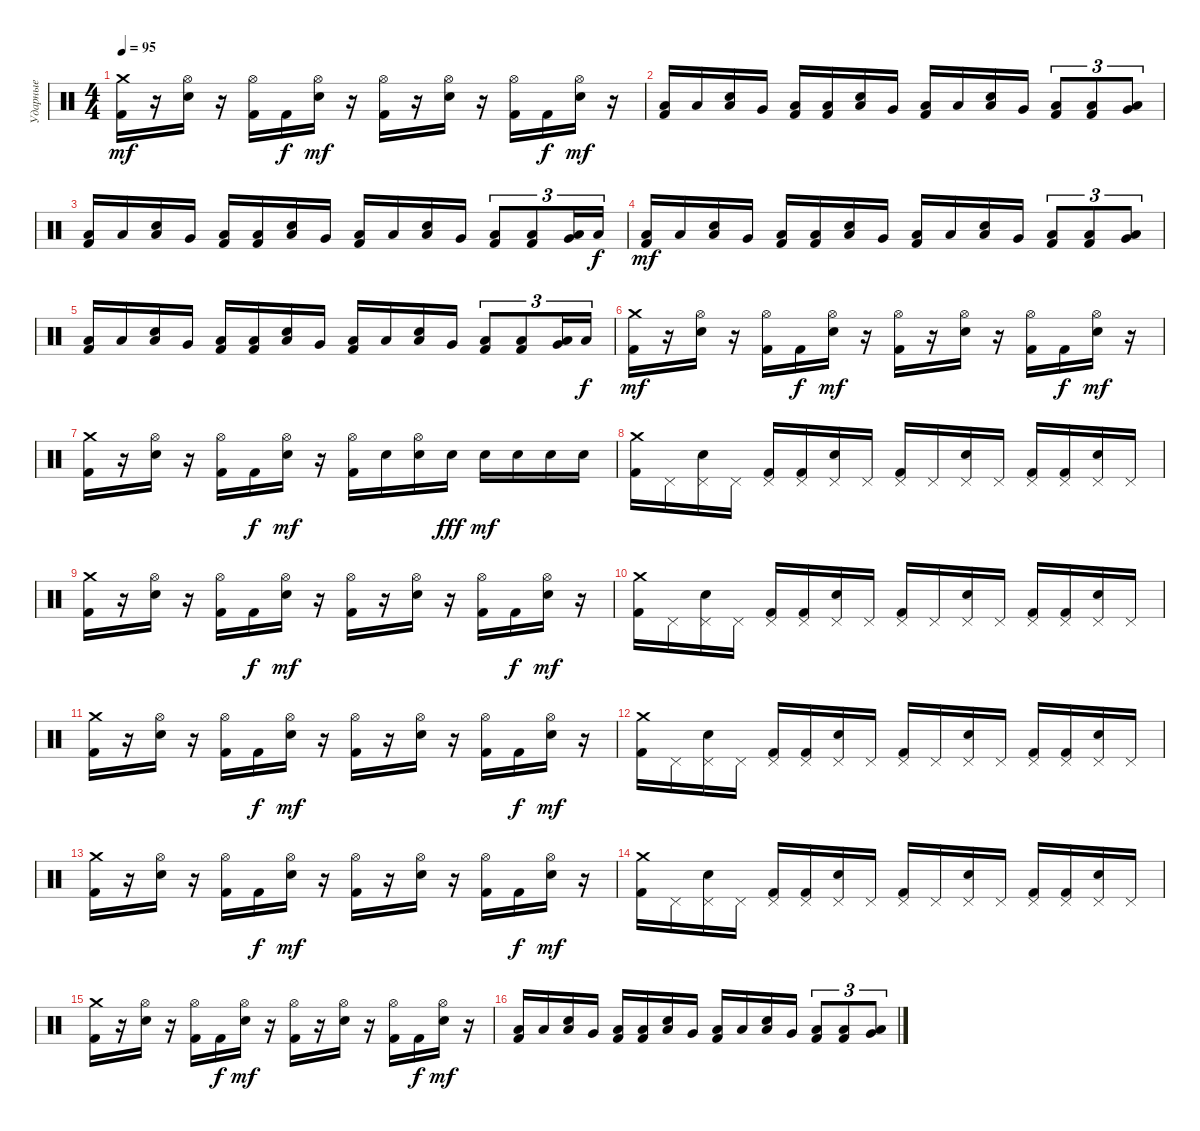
\track ("Ударные" "Ударные") {instrument percussion}
\staff {score}
\articulation defaults
\ts (4 4)
\tempo 95
\clef neutral
\ks c
("Crash medium (hit)" "Kick (hit) 2").16{dy mf} r.16 ("Hi-Hat (open)" "Electric Snare (hit)").16 r.16 ("Hi-Hat (open)" "Kick (hit) 2").16 "Kick (hit) 2".16{dy f} ("Hi-Hat (open)" "Electric Snare (hit)").16{dy mf} r.16 ("Hi-Hat (open)" "Kick (hit) 2").16 r.16 ("Hi-Hat (open)" "Electric Snare (hit)").16 r.16 ("Hi-Hat (open)" "Kick (hit) 2").16 "Kick (hit) 2".16{dy f} ("Hi-Hat (open)" "Electric Snare (hit)").16{dy mf} r.16 |
("Low Floor Tom (hit)" "Kick (hit) 2").16 "Low Floor Tom (hit)".16 ("Low Floor Tom (hit)" "Electric Snare (hit)").16 "Very Low Tom (hit)".16 ("Low Floor Tom (hit)" "Kick (hit) 2").16 ("Low Floor Tom (hit)" "Kick (hit) 2").16 ("Low Floor Tom (hit)" "Electric Snare (hit)").16 "Very Low Tom (hit)".16 ("Low Floor Tom (hit)" "Kick (hit) 2").16 "Low Floor Tom (hit)".16 ("Low Floor Tom (hit)" "Electric Snare (hit)").16 "Very Low Tom (hit)".16 ("Low Floor Tom (hit)" "Kick (hit) 2").8{tu (3 2)} ("Low Floor Tom (hit)" "Kick (hit) 2").8{tu (3 2)} ("Low Floor Tom (hit)" "Very Low Tom (hit)").8{tu (3 2)} |
("Low Floor Tom (hit)" "Kick (hit) 2").16 "Low Floor Tom (hit)".16 ("Low Floor Tom (hit)" "Electric Snare (hit)").16 "Very Low Tom (hit)".16 ("Low Floor Tom (hit)" "Kick (hit) 2").16 ("Low Floor Tom (hit)" "Kick (hit) 2").16 ("Low Floor Tom (hit)" "Electric Snare (hit)").16 "Very Low Tom (hit)".16 ("Low Floor Tom (hit)" "Kick (hit) 2").16 "Low Floor Tom (hit)".16 ("Low Floor Tom (hit)" "Electric Snare (hit)").16 "Very Low Tom (hit)".16 ("Low Floor Tom (hit)" "Kick (hit) 2").8{tu (3 2)} ("Low Floor Tom (hit)" "Kick (hit) 2").8{tu (3 2)} ("Low Floor Tom (hit)" "Very Low Tom (hit)").16{tu (3 2)} "Low Floor Tom (hit)".16{tu (3 2) dy f} |
("Low Floor Tom (hit)" "Kick (hit) 2").16{dy mf} "Low Floor Tom (hit)".16 ("Low Floor Tom (hit)" "Electric Snare (hit)").16 "Very Low Tom (hit)".16 ("Low Floor Tom (hit)" "Kick (hit) 2").16 ("Low Floor Tom (hit)" "Kick (hit) 2").16 ("Low Floor Tom (hit)" "Electric Snare (hit)").16 "Very Low Tom (hit)".16 ("Low Floor Tom (hit)" "Kick (hit) 2").16 "Low Floor Tom (hit)".16 ("Low Floor Tom (hit)" "Electric Snare (hit)").16 "Very Low Tom (hit)".16 ("Low Floor Tom (hit)" "Kick (hit) 2").8{tu (3 2)} ("Low Floor Tom (hit)" "Kick (hit) 2").8{tu (3 2)} ("Low Floor Tom (hit)" "Very Low Tom (hit)").8{tu (3 2)} |
("Low Floor Tom (hit)" "Kick (hit) 2").16 "Low Floor Tom (hit)".16 ("Low Floor Tom (hit)" "Electric Snare (hit)").16 "Very Low Tom (hit)".16 ("Low Floor Tom (hit)" "Kick (hit) 2").16 ("Low Floor Tom (hit)" "Kick (hit) 2").16 ("Low Floor Tom (hit)" "Electric Snare (hit)").16 "Very Low Tom (hit)".16 ("Low Floor Tom (hit)" "Kick (hit) 2").16 "Low Floor Tom (hit)".16 ("Low Floor Tom (hit)" "Electric Snare (hit)").16 "Very Low Tom (hit)".16 ("Low Floor Tom (hit)" "Kick (hit) 2").8{tu (3 2)} ("Low Floor Tom (hit)" "Kick (hit) 2").8{tu (3 2)} ("Low Floor Tom (hit)" "Very Low Tom (hit)").16{tu (3 2)} "Low Floor Tom (hit)".16{tu (3 2) dy f} |
("Crash medium (hit)" "Kick (hit) 2").16{dy mf} r.16 ("Hi-Hat (open)" "Electric Snare (hit)").16 r.16 ("Hi-Hat (open)" "Kick (hit) 2").16 "Kick (hit) 2".16{dy f} ("Hi-Hat (open)" "Electric Snare (hit)").16{dy mf} r.16 ("Hi-Hat (open)" "Kick (hit) 2").16 r.16 ("Hi-Hat (open)" "Electric Snare (hit)").16 r.16 ("Hi-Hat (open)" "Kick (hit) 2").16 "Kick (hit) 2".16{dy f} ("Hi-Hat (open)" "Electric Snare (hit)").16{dy mf} r.16 |
("Crash medium (hit)" "Kick (hit) 2").16 r.16 ("Hi-Hat (open)" "Electric Snare (hit)").16 r.16 ("Hi-Hat (open)" "Kick (hit) 2").16 "Kick (hit) 2".16{dy f} ("Hi-Hat (open)" "Electric Snare (hit)").16{dy mf} r.16 ("Hi-Hat (open)" "Kick (hit) 2").16 "Electric Snare (hit)".16 ("Hi-Hat (open)" "Electric Snare (hit)").16 "Electric Snare (hit)".16{dy fff} "Electric Snare (hit)".16{dy mf} "Electric Snare (hit)".16 "Electric Snare (hit)".16 "Electric Snare (hit)".16 |
("Crash medium (hit)" "Kick (hit) 2").16 "Pedal Hi-Hat (hit)".16 ("Pedal Hi-Hat (hit)" "Electric Snare (hit)").16 "Pedal Hi-Hat (hit)".16 ("Pedal Hi-Hat (hit)" "Kick (hit) 2").16 ("Pedal Hi-Hat (hit)" "Kick (hit) 2").16 ("Pedal Hi-Hat (hit)" "Electric Snare (hit)").16 "Pedal Hi-Hat (hit)".16 ("Pedal Hi-Hat (hit)" "Kick (hit) 2").16 "Pedal Hi-Hat (hit)".16 ("Pedal Hi-Hat (hit)" "Electric Snare (hit)").16 "Pedal Hi-Hat (hit)".16 ("Pedal Hi-Hat (hit)" "Kick (hit) 2").16 ("Pedal Hi-Hat (hit)" "Kick (hit) 2").16 ("Pedal Hi-Hat (hit)" "Electric Snare (hit)").16 "Pedal Hi-Hat (hit)".16 |
("Crash medium (hit)" "Kick (hit) 2").16 r.16 ("Hi-Hat (open)" "Electric Snare (hit)").16 r.16 ("Hi-Hat (open)" "Kick (hit) 2").16 "Kick (hit) 2".16{dy f} ("Hi-Hat (open)" "Electric Snare (hit)").16{dy mf} r.16 ("Hi-Hat (open)" "Kick (hit) 2").16 r.16 ("Hi-Hat (open)" "Electric Snare (hit)").16 r.16 ("Hi-Hat (open)" "Kick (hit) 2").16 "Kick (hit) 2".16{dy f} ("Hi-Hat (open)" "Electric Snare (hit)").16{dy mf} r.16 |
("Crash medium (hit)" "Kick (hit) 2").16 "Pedal Hi-Hat (hit)".16 ("Pedal Hi-Hat (hit)" "Electric Snare (hit)").16 "Pedal Hi-Hat (hit)".16 ("Pedal Hi-Hat (hit)" "Kick (hit) 2").16 ("Pedal Hi-Hat (hit)" "Kick (hit) 2").16 ("Pedal Hi-Hat (hit)" "Electric Snare (hit)").16 "Pedal Hi-Hat (hit)".16 ("Pedal Hi-Hat (hit)" "Kick (hit) 2").16 "Pedal Hi-Hat (hit)".16 ("Pedal Hi-Hat (hit)" "Electric Snare (hit)").16 "Pedal Hi-Hat (hit)".16 ("Pedal Hi-Hat (hit)" "Kick (hit) 2").16 ("Pedal Hi-Hat (hit)" "Kick (hit) 2").16 ("Pedal Hi-Hat (hit)" "Electric Snare (hit)").16 "Pedal Hi-Hat (hit)".16 |
("Crash medium (hit)" "Kick (hit) 2").16 r.16 ("Hi-Hat (open)" "Electric Snare (hit)").16 r.16 ("Hi-Hat (open)" "Kick (hit) 2").16 "Kick (hit) 2".16{dy f} ("Hi-Hat (open)" "Electric Snare (hit)").16{dy mf} r.16 ("Hi-Hat (open)" "Kick (hit) 2").16 r.16 ("Hi-Hat (open)" "Electric Snare (hit)").16 r.16 ("Hi-Hat (open)" "Kick (hit) 2").16 "Kick (hit) 2".16{dy f} ("Hi-Hat (open)" "Electric Snare (hit)").16{dy mf} r.16 |
("Crash medium (hit)" "Kick (hit) 2").16 "Pedal Hi-Hat (hit)".16 ("Pedal Hi-Hat (hit)" "Electric Snare (hit)").16 "Pedal Hi-Hat (hit)".16 ("Pedal Hi-Hat (hit)" "Kick (hit) 2").16 ("Pedal Hi-Hat (hit)" "Kick (hit) 2").16 ("Pedal Hi-Hat (hit)" "Electric Snare (hit)").16 "Pedal Hi-Hat (hit)".16 ("Pedal Hi-Hat (hit)" "Kick (hit) 2").16 "Pedal Hi-Hat (hit)".16 ("Pedal Hi-Hat (hit)" "Electric Snare (hit)").16 "Pedal Hi-Hat (hit)".16 ("Pedal Hi-Hat (hit)" "Kick (hit) 2").16 ("Pedal Hi-Hat (hit)" "Kick (hit) 2").16 ("Pedal Hi-Hat (hit)" "Electric Snare (hit)").16 "Pedal Hi-Hat (hit)".16 |
("Crash medium (hit)" "Kick (hit) 2").16 r.16 ("Hi-Hat (open)" "Electric Snare (hit)").16 r.16 ("Hi-Hat (open)" "Kick (hit) 2").16 "Kick (hit) 2".16{dy f} ("Hi-Hat (open)" "Electric Snare (hit)").16{dy mf} r.16 ("Hi-Hat (open)" "Kick (hit) 2").16 r.16 ("Hi-Hat (open)" "Electric Snare (hit)").16 r.16 ("Hi-Hat (open)" "Kick (hit) 2").16 "Kick (hit) 2".16{dy f} ("Hi-Hat (open)" "Electric Snare (hit)").16{dy mf} r.16 |
("Crash medium (hit)" "Kick (hit) 2").16 "Pedal Hi-Hat (hit)".16 ("Pedal Hi-Hat (hit)" "Electric Snare (hit)").16 "Pedal Hi-Hat (hit)".16 ("Pedal Hi-Hat (hit)" "Kick (hit) 2").16 ("Pedal Hi-Hat (hit)" "Kick (hit) 2").16 ("Pedal Hi-Hat (hit)" "Electric Snare (hit)").16 "Pedal Hi-Hat (hit)".16 ("Pedal Hi-Hat (hit)" "Kick (hit) 2").16 "Pedal Hi-Hat (hit)".16 ("Pedal Hi-Hat (hit)" "Electric Snare (hit)").16 "Pedal Hi-Hat (hit)".16 ("Pedal Hi-Hat (hit)" "Kick (hit) 2").16 ("Pedal Hi-Hat (hit)" "Kick (hit) 2").16 ("Pedal Hi-Hat (hit)" "Electric Snare (hit)").16 "Pedal Hi-Hat (hit)".16 |
("Crash medium (hit)" "Kick (hit) 2").16 r.16 ("Hi-Hat (open)" "Electric Snare (hit)").16 r.16 ("Hi-Hat (open)" "Kick (hit) 2").16 "Kick (hit) 2".16{dy f} ("Hi-Hat (open)" "Electric Snare (hit)").16{dy mf} r.16 ("Hi-Hat (open)" "Kick (hit) 2").16 r.16 ("Hi-Hat (open)" "Electric Snare (hit)").16 r.16 ("Hi-Hat (open)" "Kick (hit) 2").16 "Kick (hit) 2".16{dy f} ("Hi-Hat (open)" "Electric Snare (hit)").16{dy mf} r.16 |
("Low Floor Tom (hit)" "Kick (hit) 2").16 "Low Floor Tom (hit)".16 ("Low Floor Tom (hit)" "Electric Snare (hit)").16 "Very Low Tom (hit)".16 ("Low Floor Tom (hit)" "Kick (hit) 2").16 ("Low Floor Tom (hit)" "Kick (hit) 2").16 ("Low Floor Tom (hit)" "Electric Snare (hit)").16 "Very Low Tom (hit)".16 ("Low Floor Tom (hit)" "Kick (hit) 2").16 "Low Floor Tom (hit)".16 ("Low Floor Tom (hit)" "Electric Snare (hit)").16 "Very Low Tom (hit)".16 ("Low Floor Tom (hit)" "Kick (hit) 2").8{tu (3 2)} ("Low Floor Tom (hit)" "Kick (hit) 2").8{tu (3 2)} ("Low Floor Tom (hit)" "Very Low Tom (hit)").8{tu (3 2)}
